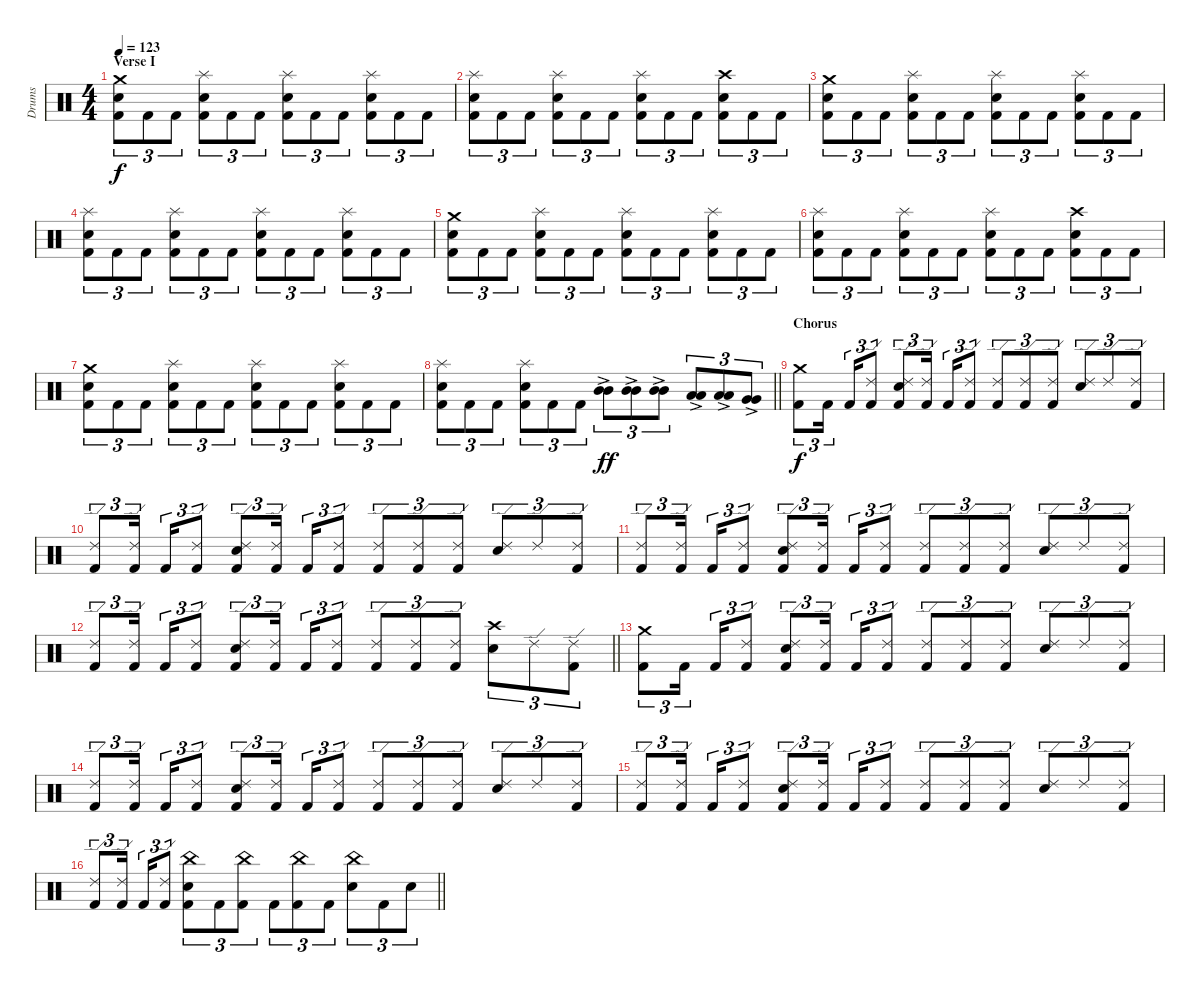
\track ("Drums" "Drums") {instrument percussion}
\staff {score}
\articulation defaults
\ts (4 4)
\section ("" "Verse I")
\tempo 123
\clef neutral
\ks c
("Kick (hit) 2" "Snare (hit) 2" "Crash medium (hit)").8{tu (3 2) dy f} "Kick (hit) 2".8{tu (3 2)} "Kick (hit) 2".8{tu (3 2)} ("Kick (hit) 2" "Snare (hit) 2" "Splash (hit)").8{tu (3 2)} "Kick (hit) 2".8{tu (3 2)} "Kick (hit) 2".8{tu (3 2)} ("Kick (hit) 2" "Snare (hit) 2" "Splash (hit)").8{tu (3 2)} "Kick (hit) 2".8{tu (3 2)} "Kick (hit) 2".8{tu (3 2)} ("Kick (hit) 2" "Snare (hit) 2" "Splash (hit)").8{tu (3 2)} "Kick (hit) 2".8{tu (3 2)} "Kick (hit) 2".8{tu (3 2)} |
("Kick (hit) 2" "Snare (hit) 2" "Splash (hit)").8{tu (3 2)} "Kick (hit) 2".8{tu (3 2)} "Kick (hit) 2".8{tu (3 2)} ("Kick (hit) 2" "Snare (hit) 2" "Splash (hit)").8{tu (3 2)} "Kick (hit) 2".8{tu (3 2)} "Kick (hit) 2".8{tu (3 2)} ("Kick (hit) 2" "Snare (hit) 2" "Splash (hit)").8{tu (3 2)} "Kick (hit) 2".8{tu (3 2)} "Kick (hit) 2".8{tu (3 2)} ("Kick (hit) 2" "Snare (hit) 2" "Crash high (hit)").8{tu (3 2)} "Kick (hit) 2".8{tu (3 2)} "Kick (hit) 2".8{tu (3 2)} |
("Kick (hit) 2" "Snare (hit) 2" "Crash medium (hit)").8{tu (3 2)} "Kick (hit) 2".8{tu (3 2)} "Kick (hit) 2".8{tu (3 2)} ("Kick (hit) 2" "Snare (hit) 2" "Splash (hit)").8{tu (3 2)} "Kick (hit) 2".8{tu (3 2)} "Kick (hit) 2".8{tu (3 2)} ("Kick (hit) 2" "Snare (hit) 2" "Splash (hit)").8{tu (3 2)} "Kick (hit) 2".8{tu (3 2)} "Kick (hit) 2".8{tu (3 2)} ("Kick (hit) 2" "Snare (hit) 2" "Splash (hit)").8{tu (3 2)} "Kick (hit) 2".8{tu (3 2)} "Kick (hit) 2".8{tu (3 2)} |
("Kick (hit) 2" "Snare (hit) 2" "Splash (hit)").8{tu (3 2)} "Kick (hit) 2".8{tu (3 2)} "Kick (hit) 2".8{tu (3 2)} ("Kick (hit) 2" "Snare (hit) 2" "Splash (hit)").8{tu (3 2)} "Kick (hit) 2".8{tu (3 2)} "Kick (hit) 2".8{tu (3 2)} ("Kick (hit) 2" "Snare (hit) 2" "Splash (hit)").8{tu (3 2)} "Kick (hit) 2".8{tu (3 2)} "Kick (hit) 2".8{tu (3 2)} ("Kick (hit) 2" "Snare (hit) 2" "Splash (hit)").8{tu (3 2)} "Kick (hit) 2".8{tu (3 2)} "Kick (hit) 2".8{tu (3 2)} |
("Kick (hit) 2" "Snare (hit) 2" "Crash medium (hit)").8{tu (3 2)} "Kick (hit) 2".8{tu (3 2)} "Kick (hit) 2".8{tu (3 2)} ("Kick (hit) 2" "Snare (hit) 2" "Splash (hit)").8{tu (3 2)} "Kick (hit) 2".8{tu (3 2)} "Kick (hit) 2".8{tu (3 2)} ("Kick (hit) 2" "Snare (hit) 2" "Splash (hit)").8{tu (3 2)} "Kick (hit) 2".8{tu (3 2)} "Kick (hit) 2".8{tu (3 2)} ("Kick (hit) 2" "Snare (hit) 2" "Splash (hit)").8{tu (3 2)} "Kick (hit) 2".8{tu (3 2)} "Kick (hit) 2".8{tu (3 2)} |
("Kick (hit) 2" "Snare (hit) 2" "Splash (hit)").8{tu (3 2)} "Kick (hit) 2".8{tu (3 2)} "Kick (hit) 2".8{tu (3 2)} ("Kick (hit) 2" "Snare (hit) 2" "Splash (hit)").8{tu (3 2)} "Kick (hit) 2".8{tu (3 2)} "Kick (hit) 2".8{tu (3 2)} ("Kick (hit) 2" "Snare (hit) 2" "Splash (hit)").8{tu (3 2)} "Kick (hit) 2".8{tu (3 2)} "Kick (hit) 2".8{tu (3 2)} ("Kick (hit) 2" "Snare (hit) 2" "Crash high (hit)").8{tu (3 2)} "Kick (hit) 2".8{tu (3 2)} "Kick (hit) 2".8{tu (3 2)} |
("Kick (hit) 2" "Snare (hit) 2" "Crash medium (hit)").8{tu (3 2)} "Kick (hit) 2".8{tu (3 2)} "Kick (hit) 2".8{tu (3 2)} ("Kick (hit) 2" "Snare (hit) 2" "Splash (hit)").8{tu (3 2)} "Kick (hit) 2".8{tu (3 2)} "Kick (hit) 2".8{tu (3 2)} ("Kick (hit) 2" "Snare (hit) 2" "Splash (hit)").8{tu (3 2)} "Kick (hit) 2".8{tu (3 2)} "Kick (hit) 2".8{tu (3 2)} ("Kick (hit) 2" "Snare (hit) 2" "Splash (hit)").8{tu (3 2)} "Kick (hit) 2".8{tu (3 2)} "Kick (hit) 2".8{tu (3 2)} |
\barLineRight lightlight
("Kick (hit) 2" "Snare (hit) 2" "Splash (hit)").8{tu (3 2)} "Kick (hit) 2".8{tu (3 2)} "Kick (hit) 2".8{tu (3 2)} ("Kick (hit) 2" "Snare (hit) 2" "Splash (hit)").8{tu (3 2)} "Kick (hit) 2".8{tu (3 2)} "Kick (hit) 2".8{tu (3 2)} ("Mid Tom (hit)"{ac} "Mid Tom (hit)").8{tu (3 2) dy ff} ("Mid Tom (hit)"{ac} "Mid Tom (hit)").8{tu (3 2)} ("Mid Tom (hit)"{ac} "Mid Tom (hit)").8{tu (3 2)} ("Low Tom (hit)"{ac} "Low Tom (hit)").8{tu (3 2)} ("Low Tom (hit)"{ac} "Low Tom (hit)").8{tu (3 2)} ("Very Low Tom (hit)"{ac} "Very Low Tom (hit)").8{tu (3 2)} |
\section ("" "Chorus")
("Kick (hit) 2" "Crash medium (hit)").8{tu (3 2) dy f} "Kick (hit) 2".16{tu (3 2) beam splitsecondary} "Kick (hit) 2".16{tu (3 2)} ("Kick (hit) 2" "Ride (edge) 2").8{tu (3 2)} ("Kick (hit) 2" "Snare (hit) 2" "Ride (edge) 2").8{tu (3 2)} ("Kick (hit) 2" "Ride (edge) 2").16{tu (3 2) beam splitsecondary} "Kick (hit) 2".16{tu (3 2)} ("Kick (hit) 2" "Ride (edge) 2").8{tu (3 2)} ("Kick (hit) 2" "Ride (edge) 2").8{tu (3 2)} ("Kick (hit) 2" "Ride (edge) 2").8{tu (3 2)} ("Kick (hit) 2" "Ride (edge) 2").8{tu (3 2)} ("Snare (hit) 2" "Ride (edge) 2").8{tu (3 2)} "Ride (edge) 2".8{tu (3 2)} ("Kick (hit) 2" "Ride (edge) 2").8{tu (3 2)} |
("Kick (hit) 2" "Ride (edge) 2").8{tu (3 2)} ("Kick (hit) 2" "Ride (edge) 2").16{tu (3 2) beam splitsecondary} "Kick (hit) 2".16{tu (3 2)} ("Kick (hit) 2" "Ride (edge) 2").8{tu (3 2)} ("Kick (hit) 2" "Snare (hit) 2" "Ride (edge) 2").8{tu (3 2)} ("Kick (hit) 2" "Ride (edge) 2").16{tu (3 2) beam splitsecondary} "Kick (hit) 2".16{tu (3 2)} ("Kick (hit) 2" "Ride (edge) 2").8{tu (3 2)} ("Kick (hit) 2" "Ride (edge) 2").8{tu (3 2)} ("Kick (hit) 2" "Ride (edge) 2").8{tu (3 2)} ("Kick (hit) 2" "Ride (edge) 2").8{tu (3 2)} ("Snare (hit) 2" "Ride (edge) 2").8{tu (3 2)} "Ride (edge) 2".8{tu (3 2)} ("Kick (hit) 2" "Ride (edge) 2").8{tu (3 2)} |
("Kick (hit) 2" "Ride (edge) 2").8{tu (3 2)} ("Kick (hit) 2" "Ride (edge) 2").16{tu (3 2) beam splitsecondary} "Kick (hit) 2".16{tu (3 2)} ("Kick (hit) 2" "Ride (edge) 2").8{tu (3 2)} ("Kick (hit) 2" "Snare (hit) 2" "Ride (edge) 2").8{tu (3 2)} ("Kick (hit) 2" "Ride (edge) 2").16{tu (3 2) beam splitsecondary} "Kick (hit) 2".16{tu (3 2)} ("Kick (hit) 2" "Ride (edge) 2").8{tu (3 2)} ("Kick (hit) 2" "Ride (edge) 2").8{tu (3 2)} ("Kick (hit) 2" "Ride (edge) 2").8{tu (3 2)} ("Kick (hit) 2" "Ride (edge) 2").8{tu (3 2)} ("Snare (hit) 2" "Ride (edge) 2").8{tu (3 2)} "Ride (edge) 2".8{tu (3 2)} ("Kick (hit) 2" "Ride (edge) 2").8{tu (3 2)} |
\barLineRight lightlight
("Kick (hit) 2" "Ride (edge) 2").8{tu (3 2)} ("Kick (hit) 2" "Ride (edge) 2").16{tu (3 2) beam splitsecondary} "Kick (hit) 2".16{tu (3 2)} ("Kick (hit) 2" "Ride (edge) 2").8{tu (3 2)} ("Kick (hit) 2" "Snare (hit) 2" "Ride (edge) 2").8{tu (3 2)} ("Kick (hit) 2" "Ride (edge) 2").16{tu (3 2) beam splitsecondary} "Kick (hit) 2".16{tu (3 2)} ("Kick (hit) 2" "Ride (edge) 2").8{tu (3 2)} ("Kick (hit) 2" "Ride (edge) 2").8{tu (3 2)} ("Kick (hit) 2" "Ride (edge) 2").8{tu (3 2)} ("Kick (hit) 2" "Ride (edge) 2").8{tu (3 2)} ("Snare (hit) 2" "Crash high (hit)").8{tu (3 2)} "Ride (edge) 2".8{tu (3 2)} ("Kick (hit) 2" "Ride (edge) 2").8{tu (3 2)} |
("Kick (hit) 2" "Crash medium (hit)").8{tu (3 2)} "Kick (hit) 2".16{tu (3 2) beam splitsecondary} "Kick (hit) 2".16{tu (3 2)} ("Kick (hit) 2" "Ride (edge) 2").8{tu (3 2)} ("Kick (hit) 2" "Snare (hit) 2" "Ride (edge) 2").8{tu (3 2)} ("Kick (hit) 2" "Ride (edge) 2").16{tu (3 2) beam splitsecondary} "Kick (hit) 2".16{tu (3 2)} ("Kick (hit) 2" "Ride (edge) 2").8{tu (3 2)} ("Kick (hit) 2" "Ride (edge) 2").8{tu (3 2)} ("Kick (hit) 2" "Ride (edge) 2").8{tu (3 2)} ("Kick (hit) 2" "Ride (edge) 2").8{tu (3 2)} ("Snare (hit) 2" "Ride (edge) 2").8{tu (3 2)} "Ride (edge) 2".8{tu (3 2)} ("Kick (hit) 2" "Ride (edge) 2").8{tu (3 2)} |
("Kick (hit) 2" "Ride (edge) 2").8{tu (3 2)} ("Kick (hit) 2" "Ride (edge) 2").16{tu (3 2) beam splitsecondary} "Kick (hit) 2".16{tu (3 2)} ("Kick (hit) 2" "Ride (edge) 2").8{tu (3 2)} ("Kick (hit) 2" "Snare (hit) 2" "Ride (edge) 2").8{tu (3 2)} ("Kick (hit) 2" "Ride (edge) 2").16{tu (3 2) beam splitsecondary} "Kick (hit) 2".16{tu (3 2)} ("Kick (hit) 2" "Ride (edge) 2").8{tu (3 2)} ("Kick (hit) 2" "Ride (edge) 2").8{tu (3 2)} ("Kick (hit) 2" "Ride (edge) 2").8{tu (3 2)} ("Kick (hit) 2" "Ride (edge) 2").8{tu (3 2)} ("Snare (hit) 2" "Ride (edge) 2").8{tu (3 2)} "Ride (edge) 2".8{tu (3 2)} ("Kick (hit) 2" "Ride (edge) 2").8{tu (3 2)} |
("Kick (hit) 2" "Ride (edge) 2").8{tu (3 2)} ("Kick (hit) 2" "Ride (edge) 2").16{tu (3 2) beam splitsecondary} "Kick (hit) 2".16{tu (3 2)} ("Kick (hit) 2" "Ride (edge) 2").8{tu (3 2)} ("Kick (hit) 2" "Snare (hit) 2" "Ride (edge) 2").8{tu (3 2)} ("Kick (hit) 2" "Ride (edge) 2").16{tu (3 2) beam splitsecondary} "Kick (hit) 2".16{tu (3 2)} ("Kick (hit) 2" "Ride (edge) 2").8{tu (3 2)} ("Kick (hit) 2" "Ride (edge) 2").8{tu (3 2)} ("Kick (hit) 2" "Ride (edge) 2").8{tu (3 2)} ("Kick (hit) 2" "Ride (edge) 2").8{tu (3 2)} ("Snare (hit) 2" "Ride (edge) 2").8{tu (3 2)} "Ride (edge) 2".8{tu (3 2)} ("Kick (hit) 2" "Ride (edge) 2").8{tu (3 2)} |
\barLineRight lightlight
("Kick (hit) 2" "Ride (edge) 2").8{tu (3 2)} ("Kick (hit) 2" "Ride (edge) 2").16{tu (3 2) beam splitsecondary} "Kick (hit) 2".16{tu (3 2)} ("Kick (hit) 2" "Ride (edge) 2").8{tu (3 2)} ("Kick (hit) 2" "Snare (hit) 2" "China (hit)").8{tu (3 2)} "Kick (hit) 2".8{tu (3 2)} ("Kick (hit) 2" "China (hit)").8{tu (3 2)} "Kick (hit) 2".8{tu (3 2)} ("Kick (hit) 2" "China (hit)").8{tu (3 2)} "Kick (hit) 2".8{tu (3 2)} ("Snare (hit) 2" "China (hit)").8{tu (3 2)} "Kick (hit) 2".8{tu (3 2)} "Snare (hit) 2".8{tu (3 2)}
